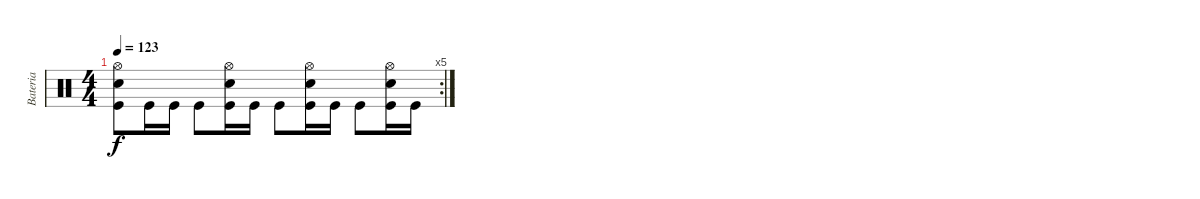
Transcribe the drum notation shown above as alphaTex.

\track ("Bateria" "Bateria") {instrument percussion}
\staff {score}
\articulation defaults
\rc 5
\ts (4 4)
\tempo 123
\clef neutral
\ks c
("Hi-Hat (open)" "Snare (hit) 2" "Kick (hit)").8{dy f} "Kick (hit)".16 "Kick (hit)".16 "Kick (hit)".8 ("Hi-Hat (open)" "Snare (hit) 2" "Kick (hit)").16 "Kick (hit)".16 "Kick (hit)".8 ("Hi-Hat (open)" "Snare (hit) 2" "Kick (hit)").16 "Kick (hit)".16 "Kick (hit)".8 ("Hi-Hat (open)" "Snare (hit) 2" "Kick (hit)").16 "Kick (hit)".16
